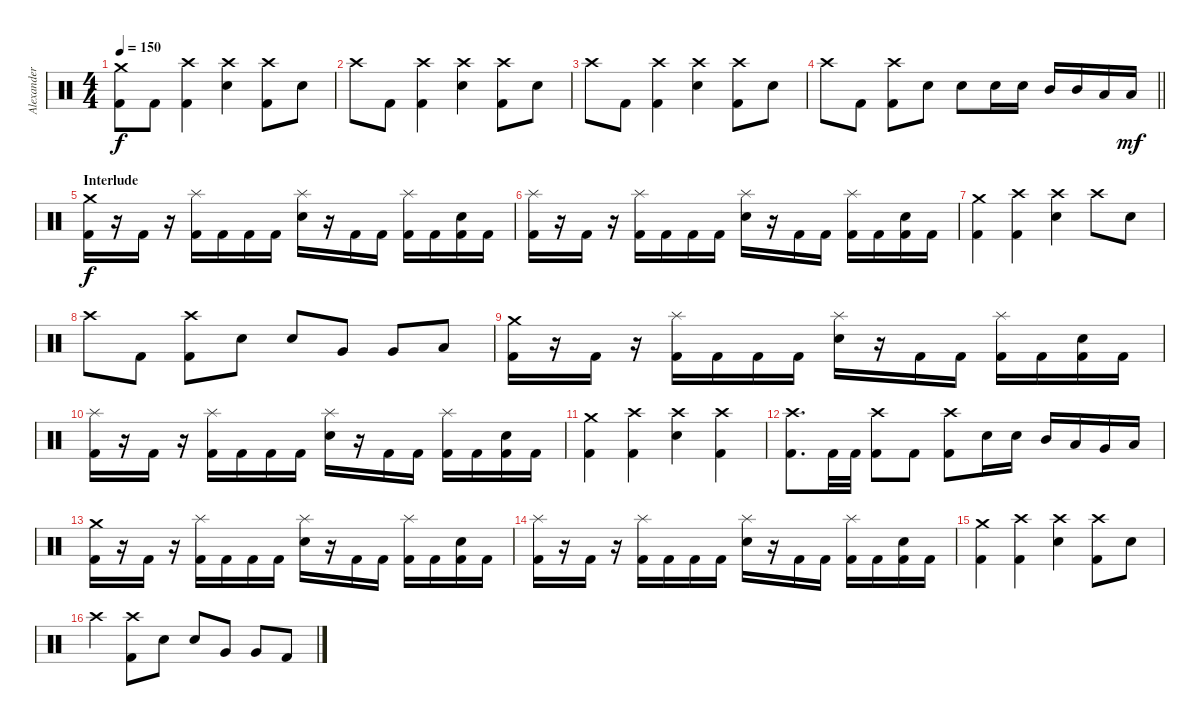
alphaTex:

\track ("Alexander Sveningsson" "Alexander ") {instrument percussion}
\staff {score}
\articulation defaults
\ts (4 4)
\tempo 150
\clef neutral
\ks c
("Crash medium (hit)" "Kick (hit) 2").8{dy f} "Kick (hit) 2".8 ("Crash high (hit)" "Kick (hit) 2").4 ("Crash high (hit)" "Electric Snare (hit)").4 ("Crash high (hit)" "Kick (hit) 2").8 "Electric Snare (hit)".8 |
"Crash high (hit)".8 "Kick (hit) 2".8 ("Crash high (hit)" "Kick (hit) 2").4 ("Crash high (hit)" "Electric Snare (hit)").4 ("Crash high (hit)" "Kick (hit) 2").8 "Electric Snare (hit)".8 |
"Crash high (hit)".8 "Kick (hit) 2".8 ("Crash high (hit)" "Kick (hit) 2").4 ("Crash high (hit)" "Electric Snare (hit)").4 ("Crash high (hit)" "Kick (hit) 2").8 "Electric Snare (hit)".8 |
\barLineRight lightlight "Crash high (hit)".8 "Kick (hit) 2".8
("Crash high (hit)" "Kick (hit) 2").8 "Electric Snare (hit)".8 "Electric Snare (hit)".8 "Electric Snare (hit)".16 "Electric Snare (hit)".16 "Mid Tom (hit)".16 "Mid Tom (hit)".16 "Low Tom (hit)".16 "Low Tom (hit)".16{dy mf} |
\section ("" "Interlude")
("Crash medium (hit)" "Kick (hit) 2").16{dy f} r.16 "Kick (hit) 2".16 r.16 ("Splash (hit)" "Kick (hit) 2").16 "Kick (hit) 2".16 "Kick (hit) 2".16 "Kick (hit) 2".16 ("Splash (hit)" "Electric Snare (hit)").16 r.16 "Kick (hit) 2".16 "Kick (hit) 2".16 ("Splash (hit)" "Kick (hit) 2").16 "Kick (hit) 2".16 ("Electric Snare (hit)" "Kick (hit) 2").16 "Kick (hit) 2".16 |
("Splash (hit)" "Kick (hit) 2").16 r.16 "Kick (hit) 2".16 r.16 ("Splash (hit)" "Kick (hit) 2").16 "Kick (hit) 2".16 "Kick (hit) 2".16 "Kick (hit) 2".16 ("Splash (hit)" "Electric Snare (hit)").16 r.16 "Kick (hit) 2".16 "Kick (hit) 2".16 ("Splash (hit)" "Kick (hit) 2").16 "Kick (hit) 2".16 ("Electric Snare (hit)" "Kick (hit) 2").16 "Kick (hit) 2".16 |
("Crash medium (hit)" "Kick (hit) 2").4 ("Crash high (hit)" "Kick (hit) 2").4 ("Crash high (hit)" "Electric Snare (hit)").4 "Crash high (hit)".8 "Electric Snare (hit)".8 |
"Crash high (hit)".8 "Kick (hit) 2".8 ("Crash high (hit)" "Kick (hit) 2").8 "Electric Snare (hit)".8 "Electric Snare (hit)".8 "Very Low Tom (hit)".8 "Very Low Tom (hit)".8 "Low Floor Tom (hit)".8 |
("Crash medium (hit)" "Kick (hit) 2").16 r.16 "Kick (hit) 2".16 r.16 ("Splash (hit)" "Kick (hit) 2").16 "Kick (hit) 2".16 "Kick (hit) 2".16 "Kick (hit) 2".16 ("Splash (hit)" "Electric Snare (hit)").16 r.16 "Kick (hit) 2".16 "Kick (hit) 2".16 ("Splash (hit)" "Kick (hit) 2").16 "Kick (hit) 2".16 ("Electric Snare (hit)" "Kick (hit) 2").16 "Kick (hit) 2".16 |
("Splash (hit)" "Kick (hit) 2").16 r.16 "Kick (hit) 2".16 r.16 ("Splash (hit)" "Kick (hit) 2").16 "Kick (hit) 2".16 "Kick (hit) 2".16 "Kick (hit) 2".16 ("Splash (hit)" "Electric Snare (hit)").16 r.16 "Kick (hit) 2".16 "Kick (hit) 2".16 ("Splash (hit)" "Kick (hit) 2").16 "Kick (hit) 2".16 ("Electric Snare (hit)" "Kick (hit) 2").16 "Kick (hit) 2".16 |
("Crash medium (hit)" "Kick (hit) 2").4 ("Crash high (hit)" "Kick (hit) 2").4 ("Crash high (hit)" "Electric Snare (hit)").4 ("Crash high (hit)" "Kick (hit) 2").4 |
("Crash high (hit)" "Kick (hit) 2").8{d} "Kick (hit) 2".32 "Kick (hit) 2".32 ("Crash high (hit)" "Kick (hit) 2").8 "Kick (hit) 2".8 ("Crash high (hit)" "Kick (hit) 2").8 "Electric Snare (hit)".16 "Electric Snare (hit)".16 "Mid Tom (hit)".16 "Low Tom (hit)".16 "Very Low Tom (hit)".16 "Low Floor Tom (hit)".16 |
("Crash medium (hit)" "Kick (hit) 2").16 r.16 "Kick (hit) 2".16 r.16 ("Splash (hit)" "Kick (hit) 2").16 "Kick (hit) 2".16 "Kick (hit) 2".16 "Kick (hit) 2".16 ("Splash (hit)" "Electric Snare (hit)").16 r.16 "Kick (hit) 2".16 "Kick (hit) 2".16 ("Splash (hit)" "Kick (hit) 2").16 "Kick (hit) 2".16 ("Electric Snare (hit)" "Kick (hit) 2").16 "Kick (hit) 2".16 |
("Splash (hit)" "Kick (hit) 2").16 r.16 "Kick (hit) 2".16 r.16 ("Splash (hit)" "Kick (hit) 2").16 "Kick (hit) 2".16 "Kick (hit) 2".16 "Kick (hit) 2".16 ("Splash (hit)" "Electric Snare (hit)").16 r.16 "Kick (hit) 2".16 "Kick (hit) 2".16 ("Splash (hit)" "Kick (hit) 2").16 "Kick (hit) 2".16 ("Electric Snare (hit)" "Kick (hit) 2").16 "Kick (hit) 2".16 |
("Crash medium (hit)" "Kick (hit) 2").4 ("Crash high (hit)" "Kick (hit) 2").4 ("Crash high (hit)" "Electric Snare (hit)").4 ("Crash high (hit)" "Kick (hit) 2").8 "Electric Snare (hit)".8 |
"Crash high (hit)".4 ("Crash high (hit)" "Kick (hit) 2").8 "Electric Snare (hit)".8 "Electric Snare (hit)".8 "Very Low Tom (hit)".8 "Very Low Tom (hit)".8 "Kick (hit) 2".8
